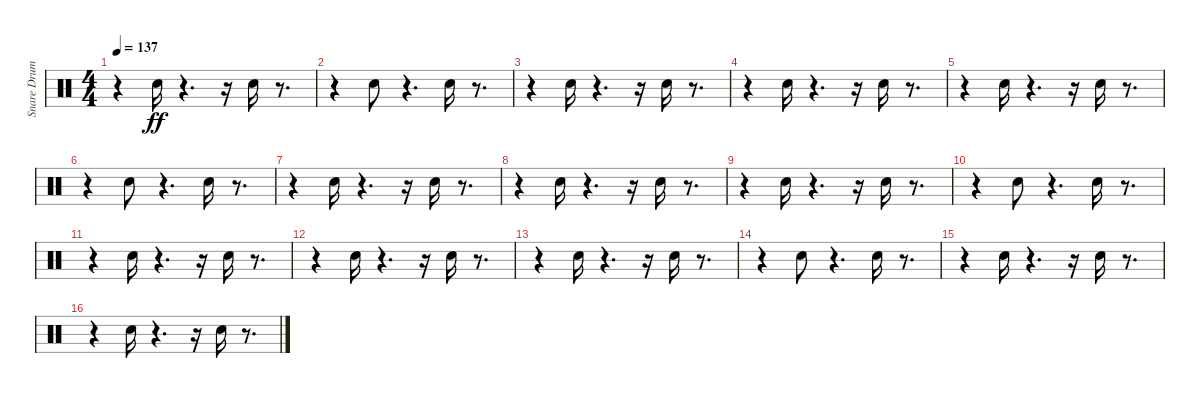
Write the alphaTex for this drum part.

\track ("Snare Drum" "Snare Drum") {instrument percussion}
\staff {score}
\articulation defaults
\ts (4 4)
\tempo 137
\clef neutral
\ks c
r.4{dy ff} "Electric Snare (hit)".16 r.4{d} r.16 "Electric Snare (hit)".16 r.8{d} |
r.4 "Electric Snare (hit)".8 r.4{d} "Electric Snare (hit)".16 r.8{d} |
r.4 "Electric Snare (hit)".16 r.4{d} r.16 "Electric Snare (hit)".16 r.8{d} |
r.4 "Electric Snare (hit)".16 r.4{d} r.16 "Electric Snare (hit)".16 r.8{d} |
r.4 "Electric Snare (hit)".16 r.4{d} r.16 "Electric Snare (hit)".16 r.8{d} |
r.4 "Electric Snare (hit)".8 r.4{d} "Electric Snare (hit)".16 r.8{d} |
r.4 "Electric Snare (hit)".16 r.4{d} r.16 "Electric Snare (hit)".16 r.8{d} |
r.4 "Electric Snare (hit)".16 r.4{d} r.16 "Electric Snare (hit)".16 r.8{d} |
r.4 "Electric Snare (hit)".16 r.4{d} r.16 "Electric Snare (hit)".16 r.8{d} |
r.4 "Electric Snare (hit)".8 r.4{d} "Electric Snare (hit)".16 r.8{d} |
r.4 "Electric Snare (hit)".16 r.4{d} r.16 "Electric Snare (hit)".16 r.8{d} |
r.4 "Electric Snare (hit)".16 r.4{d} r.16 "Electric Snare (hit)".16 r.8{d} |
r.4 "Electric Snare (hit)".16 r.4{d} r.16 "Electric Snare (hit)".16 r.8{d} |
r.4 "Electric Snare (hit)".8 r.4{d} "Electric Snare (hit)".16 r.8{d} |
r.4 "Electric Snare (hit)".16 r.4{d} r.16 "Electric Snare (hit)".16 r.8{d} |
r.4 "Electric Snare (hit)".16 r.4{d} r.16 "Electric Snare (hit)".16 r.8{d}
